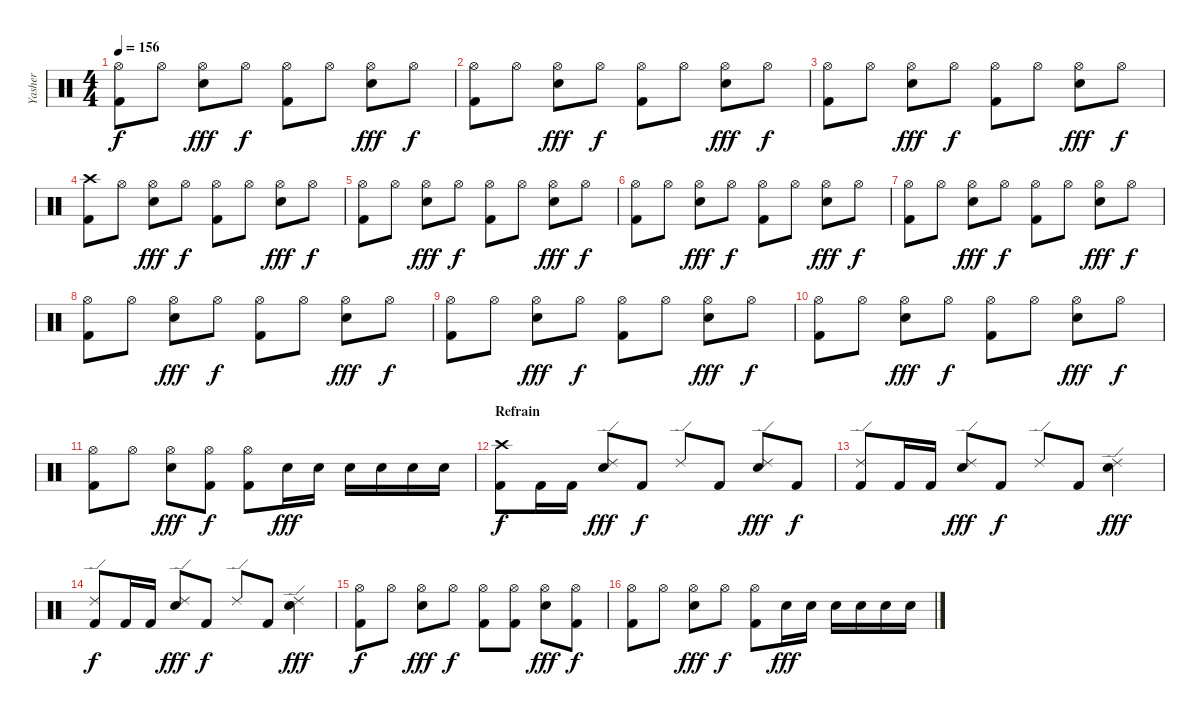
\track ("Yasher" "Yasher") {instrument percussion}
\staff {score}
\articulation defaults
\ts (4 4)
\tempo 156
\clef neutral
\ks c
("Hi-Hat (open)" "Kick (hit) 2").8{dy f} "Hi-Hat (open)".8 ("Hi-Hat (open)" "Electric Snare (hit)").8{dy fff} "Hi-Hat (open)".8{dy f} ("Hi-Hat (open)" "Kick (hit) 2").8 "Hi-Hat (open)".8 ("Hi-Hat (open)" "Electric Snare (hit)").8{dy fff} "Hi-Hat (open)".8{dy f} |
("Hi-Hat (open)" "Kick (hit) 2").8 "Hi-Hat (open)".8 ("Hi-Hat (open)" "Electric Snare (hit)").8{dy fff} "Hi-Hat (open)".8{dy f} ("Hi-Hat (open)" "Kick (hit) 2").8 "Hi-Hat (open)".8 ("Hi-Hat (open)" "Electric Snare (hit)").8{dy fff} "Hi-Hat (open)".8{dy f} |
("Hi-Hat (open)" "Kick (hit) 2").8 "Hi-Hat (open)".8 ("Hi-Hat (open)" "Electric Snare (hit)").8{dy fff} "Hi-Hat (open)".8{dy f} ("Hi-Hat (open)" "Kick (hit) 2").8 "Hi-Hat (open)".8 ("Hi-Hat (open)" "Electric Snare (hit)").8{dy fff} "Hi-Hat (open)".8{dy f} |
("Crash high (hit)" "Kick (hit) 2").8 "Hi-Hat (open)".8 ("Hi-Hat (open)" "Electric Snare (hit)").8{dy fff} "Hi-Hat (open)".8{dy f} ("Hi-Hat (open)" "Kick (hit) 2").8 "Hi-Hat (open)".8 ("Hi-Hat (open)" "Electric Snare (hit)").8{dy fff} "Hi-Hat (open)".8{dy f} |
("Hi-Hat (open)" "Kick (hit) 2").8 "Hi-Hat (open)".8 ("Hi-Hat (open)" "Electric Snare (hit)").8{dy fff} "Hi-Hat (open)".8{dy f} ("Hi-Hat (open)" "Kick (hit) 2").8 "Hi-Hat (open)".8 ("Hi-Hat (open)" "Electric Snare (hit)").8{dy fff} "Hi-Hat (open)".8{dy f} |
("Hi-Hat (open)" "Kick (hit) 2").8 "Hi-Hat (open)".8 ("Hi-Hat (open)" "Electric Snare (hit)").8{dy fff} "Hi-Hat (open)".8{dy f} ("Hi-Hat (open)" "Kick (hit) 2").8 "Hi-Hat (open)".8 ("Hi-Hat (open)" "Electric Snare (hit)").8{dy fff} "Hi-Hat (open)".8{dy f} |
("Hi-Hat (open)" "Kick (hit) 2").8 "Hi-Hat (open)".8 ("Hi-Hat (open)" "Electric Snare (hit)").8{dy fff} "Hi-Hat (open)".8{dy f} ("Hi-Hat (open)" "Kick (hit) 2").8 "Hi-Hat (open)".8 ("Hi-Hat (open)" "Electric Snare (hit)").8{dy fff} "Hi-Hat (open)".8{dy f} |
("Hi-Hat (open)" "Kick (hit) 2").8 "Hi-Hat (open)".8 ("Hi-Hat (open)" "Electric Snare (hit)").8{dy fff} "Hi-Hat (open)".8{dy f} ("Hi-Hat (open)" "Kick (hit) 2").8 "Hi-Hat (open)".8 ("Hi-Hat (open)" "Electric Snare (hit)").8{dy fff} "Hi-Hat (open)".8{dy f} |
("Hi-Hat (open)" "Kick (hit) 2").8 "Hi-Hat (open)".8 ("Hi-Hat (open)" "Electric Snare (hit)").8{dy fff} "Hi-Hat (open)".8{dy f} ("Hi-Hat (open)" "Kick (hit) 2").8 "Hi-Hat (open)".8 ("Hi-Hat (open)" "Electric Snare (hit)").8{dy fff} "Hi-Hat (open)".8{dy f} |
("Hi-Hat (open)" "Kick (hit) 2").8 "Hi-Hat (open)".8 ("Hi-Hat (open)" "Electric Snare (hit)").8{dy fff} "Hi-Hat (open)".8{dy f} ("Hi-Hat (open)" "Kick (hit) 2").8 "Hi-Hat (open)".8 ("Hi-Hat (open)" "Electric Snare (hit)").8{dy fff} "Hi-Hat (open)".8{dy f} |
("Hi-Hat (open)" "Kick (hit) 2").8 "Hi-Hat (open)".8 ("Hi-Hat (open)" "Electric Snare (hit)").8{dy fff} ("Hi-Hat (open)" "Kick (hit) 2").8{dy f} ("Hi-Hat (open)" "Kick (hit) 2").8 "Electric Snare (hit)".16{dy fff} "Electric Snare (hit)".16 "Electric Snare (hit)".16 "Electric Snare (hit)".16 "Electric Snare (hit)".16 "Electric Snare (hit)".16 |
\section ("" "Refrain")
("Crash high (hit)" "Kick (hit) 2").8{dy f} "Kick (hit) 2".16 "Kick (hit) 2".16 ("Ride (edge) 2" "Electric Snare (hit)").8{dy fff} "Kick (hit) 2".8{dy f} "Ride (edge) 2".8 "Kick (hit) 2".8 ("Ride (edge) 2" "Electric Snare (hit)").8{dy fff} "Kick (hit) 2".8{dy f} |
("Ride (edge) 2" "Kick (hit) 2").8 "Kick (hit) 2".16 "Kick (hit) 2".16 ("Ride (edge) 2" "Electric Snare (hit)").8{dy fff} "Kick (hit) 2".8{dy f} "Ride (edge) 2".8 "Kick (hit) 2".8 ("Ride (edge) 2" "Electric Snare (hit)").4{dy fff} |
("Ride (edge) 2" "Kick (hit) 2").8{dy f} "Kick (hit) 2".16 "Kick (hit) 2".16 ("Ride (edge) 2" "Electric Snare (hit)").8{dy fff} "Kick (hit) 2".8{dy f} "Ride (edge) 2".8 "Kick (hit) 2".8 ("Ride (edge) 2" "Electric Snare (hit)").4{dy fff} |
("Hi-Hat (open)" "Kick (hit) 2").8{dy f} "Hi-Hat (open)".8 ("Hi-Hat (open)" "Electric Snare (hit)").8{dy fff} "Hi-Hat (open)".8{dy f} ("Hi-Hat (open)" "Kick (hit) 2").8 ("Hi-Hat (open)" "Kick (hit) 2").8 ("Hi-Hat (open)" "Electric Snare (hit)").8{dy fff} ("Hi-Hat (open)" "Kick (hit) 2").8{dy f} |
("Hi-Hat (open)" "Kick (hit) 2").8 "Hi-Hat (open)".8 ("Hi-Hat (open)" "Electric Snare (hit)").8{dy fff} "Hi-Hat (open)".8{dy f} ("Hi-Hat (open)" "Kick (hit) 2").8 "Electric Snare (hit)".16{dy fff} "Electric Snare (hit)".16 "Electric Snare (hit)".16 "Electric Snare (hit)".16 "Electric Snare (hit)".16 "Electric Snare (hit)".16
